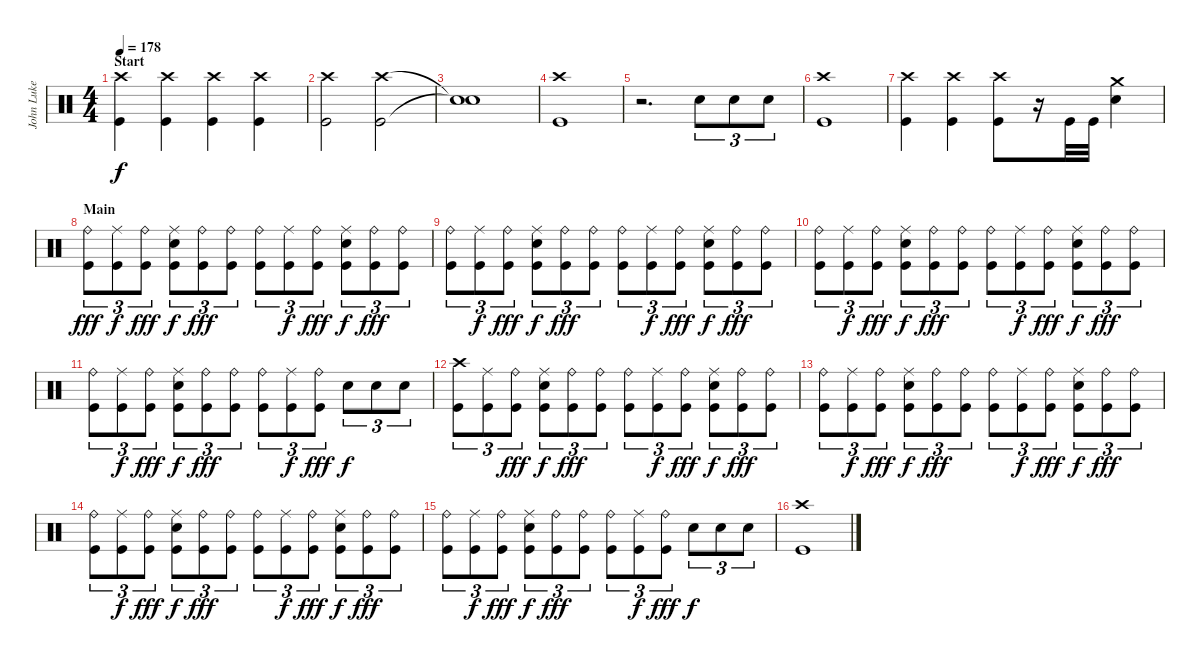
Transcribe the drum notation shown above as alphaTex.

\track ("John Luke (Drums)" "John Luke ") {instrument percussion}
\staff {score}
\articulation defaults
\ts (4 4)
\section ("" "Start")
\tempo 178
\clef neutral
\ks c
("Crash high (hit)" "Kick (hit)").4{dy f} ("Crash high (hit)" "Kick (hit)").4 ("Crash high (hit)" "Kick (hit)").4 ("Crash high (hit)" "Kick (hit)").4 |
("Crash high (hit)" "Kick (hit)").2 ("Crash high (hit)" "Kick (hit)").2 |
("Snare (hit)"{t} "Snare (hit)"{t}).1 |
("Crash high (hit)" "Kick (hit)").1 |
r.2{d} "Electric Snare (hit)".8{tu (3 2)} "Electric Snare (hit)".8{tu (3 2)} "Electric Snare (hit)".8{tu (3 2)} |
("Crash high (hit)" "Kick (hit)").1 |
("Crash high (hit)" "Kick (hit)").4 ("Crash high (hit)" "Kick (hit)").4 ("Crash high (hit)" "Kick (hit)").8 r.16 "Kick (hit)".32 "Kick (hit)".32 ("Crash medium (hit)" "Electric Snare (hit)").4 |
\section ("" "Main")
("Ride (bell)" "Kick (hit)").8{tu (3 2) dy fff} ("Ride (middle)" "Kick (hit)").8{tu (3 2) dy f} ("Ride (bell)" "Kick (hit)").8{tu (3 2) dy fff} ("Ride (middle)" "Electric Snare (hit)" "Kick (hit)").8{tu (3 2) dy f} ("Ride (bell)" "Kick (hit)").8{tu (3 2) dy fff} ("Ride (bell)" "Kick (hit)").8{tu (3 2)} ("Ride (bell)" "Kick (hit)").8{tu (3 2)} ("Ride (middle)" "Kick (hit)").8{tu (3 2) dy f} ("Ride (bell)" "Kick (hit)").8{tu (3 2) dy fff} ("Ride (middle)" "Electric Snare (hit)" "Kick (hit)").8{tu (3 2) dy f} ("Ride (bell)" "Kick (hit)").8{tu (3 2) dy fff} ("Ride (bell)" "Kick (hit)").8{tu (3 2)} |
("Ride (bell)" "Kick (hit)").8{tu (3 2)} ("Ride (middle)" "Kick (hit)").8{tu (3 2) dy f} ("Ride (bell)" "Kick (hit)").8{tu (3 2) dy fff} ("Ride (middle)" "Electric Snare (hit)" "Kick (hit)").8{tu (3 2) dy f} ("Ride (bell)" "Kick (hit)").8{tu (3 2) dy fff} ("Ride (bell)" "Kick (hit)").8{tu (3 2)} ("Ride (bell)" "Kick (hit)").8{tu (3 2)} ("Ride (middle)" "Kick (hit)").8{tu (3 2) dy f} ("Ride (bell)" "Kick (hit)").8{tu (3 2) dy fff} ("Ride (middle)" "Electric Snare (hit)" "Kick (hit)").8{tu (3 2) dy f} ("Ride (bell)" "Kick (hit)").8{tu (3 2) dy fff} ("Ride (bell)" "Kick (hit)").8{tu (3 2)} |
("Ride (bell)" "Kick (hit)").8{tu (3 2)} ("Ride (middle)" "Kick (hit)").8{tu (3 2) dy f} ("Ride (bell)" "Kick (hit)").8{tu (3 2) dy fff} ("Ride (middle)" "Electric Snare (hit)" "Kick (hit)").8{tu (3 2) dy f} ("Ride (bell)" "Kick (hit)").8{tu (3 2) dy fff} ("Ride (bell)" "Kick (hit)").8{tu (3 2)} ("Ride (bell)" "Kick (hit)").8{tu (3 2)} ("Ride (middle)" "Kick (hit)").8{tu (3 2) dy f} ("Ride (bell)" "Kick (hit)").8{tu (3 2) dy fff} ("Ride (middle)" "Electric Snare (hit)" "Kick (hit)").8{tu (3 2) dy f} ("Ride (bell)" "Kick (hit)").8{tu (3 2) dy fff} ("Ride (bell)" "Kick (hit)").8{tu (3 2)} |
("Ride (bell)" "Kick (hit)").8{tu (3 2)} ("Ride (middle)" "Kick (hit)").8{tu (3 2) dy f} ("Ride (bell)" "Kick (hit)").8{tu (3 2) dy fff} ("Ride (middle)" "Electric Snare (hit)" "Kick (hit)").8{tu (3 2) dy f} ("Ride (bell)" "Kick (hit)").8{tu (3 2) dy fff} ("Ride (bell)" "Kick (hit)").8{tu (3 2)} ("Ride (bell)" "Kick (hit)").8{tu (3 2)} ("Ride (middle)" "Kick (hit)").8{tu (3 2) dy f} ("Ride (bell)" "Kick (hit)").8{tu (3 2) dy fff} "Electric Snare (hit)".8{tu (3 2) dy f} "Electric Snare (hit)".8{tu (3 2)} "Electric Snare (hit)".8{tu (3 2)} |
("Crash high (hit)" "Kick (hit)").8{tu (3 2)} ("Ride (middle)" "Kick (hit)").8{tu (3 2)} ("Ride (bell)" "Kick (hit)").8{tu (3 2) dy fff} ("Ride (middle)" "Electric Snare (hit)" "Kick (hit)").8{tu (3 2) dy f} ("Ride (bell)" "Kick (hit)").8{tu (3 2) dy fff} ("Ride (bell)" "Kick (hit)").8{tu (3 2)} ("Ride (bell)" "Kick (hit)").8{tu (3 2)} ("Ride (middle)" "Kick (hit)").8{tu (3 2) dy f} ("Ride (bell)" "Kick (hit)").8{tu (3 2) dy fff} ("Ride (middle)" "Electric Snare (hit)" "Kick (hit)").8{tu (3 2) dy f} ("Ride (bell)" "Kick (hit)").8{tu (3 2) dy fff} ("Ride (bell)" "Kick (hit)").8{tu (3 2)} |
("Ride (bell)" "Kick (hit)").8{tu (3 2)} ("Ride (middle)" "Kick (hit)").8{tu (3 2) dy f} ("Ride (bell)" "Kick (hit)").8{tu (3 2) dy fff} ("Ride (middle)" "Electric Snare (hit)" "Kick (hit)").8{tu (3 2) dy f} ("Ride (bell)" "Kick (hit)").8{tu (3 2) dy fff} ("Ride (bell)" "Kick (hit)").8{tu (3 2)} ("Ride (bell)" "Kick (hit)").8{tu (3 2)} ("Ride (middle)" "Kick (hit)").8{tu (3 2) dy f} ("Ride (bell)" "Kick (hit)").8{tu (3 2) dy fff} ("Ride (middle)" "Electric Snare (hit)" "Kick (hit)").8{tu (3 2) dy f} ("Ride (bell)" "Kick (hit)").8{tu (3 2) dy fff} ("Ride (bell)" "Kick (hit)").8{tu (3 2)} |
("Ride (bell)" "Kick (hit)").8{tu (3 2)} ("Ride (middle)" "Kick (hit)").8{tu (3 2) dy f} ("Ride (bell)" "Kick (hit)").8{tu (3 2) dy fff} ("Ride (middle)" "Electric Snare (hit)" "Kick (hit)").8{tu (3 2) dy f} ("Ride (bell)" "Kick (hit)").8{tu (3 2) dy fff} ("Ride (bell)" "Kick (hit)").8{tu (3 2)} ("Ride (bell)" "Kick (hit)").8{tu (3 2)} ("Ride (middle)" "Kick (hit)").8{tu (3 2) dy f} ("Ride (bell)" "Kick (hit)").8{tu (3 2) dy fff} ("Ride (middle)" "Electric Snare (hit)" "Kick (hit)").8{tu (3 2) dy f} ("Ride (bell)" "Kick (hit)").8{tu (3 2) dy fff} ("Ride (bell)" "Kick (hit)").8{tu (3 2)} |
("Ride (bell)" "Kick (hit)").8{tu (3 2)} ("Ride (middle)" "Kick (hit)").8{tu (3 2) dy f} ("Ride (bell)" "Kick (hit)").8{tu (3 2) dy fff} ("Ride (middle)" "Electric Snare (hit)" "Kick (hit)").8{tu (3 2) dy f} ("Ride (bell)" "Kick (hit)").8{tu (3 2) dy fff} ("Ride (bell)" "Kick (hit)").8{tu (3 2)} ("Ride (bell)" "Kick (hit)").8{tu (3 2)} ("Ride (middle)" "Kick (hit)").8{tu (3 2) dy f} ("Ride (bell)" "Kick (hit)").8{tu (3 2) dy fff} "Electric Snare (hit)".8{tu (3 2) dy f} "Electric Snare (hit)".8{tu (3 2)} "Electric Snare (hit)".8{tu (3 2)} |
("Crash high (hit)" "Kick (hit)").1
